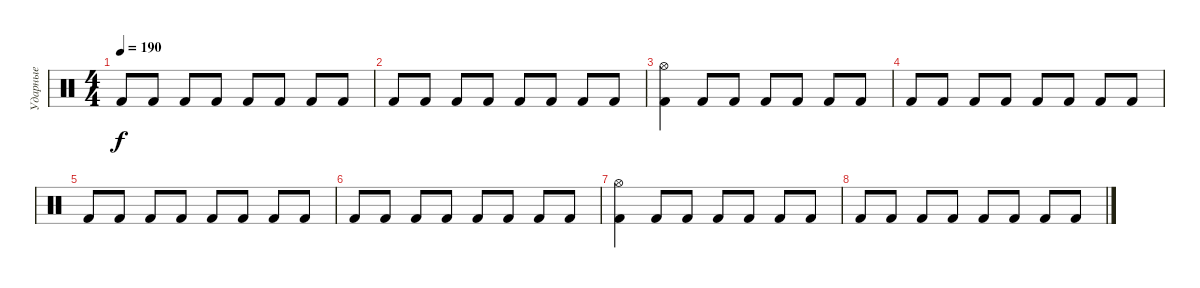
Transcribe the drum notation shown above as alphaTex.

\track ("Ударные" "Ударные") {instrument percussion}
\staff {score}
\articulation defaults
\ts (4 4)
\tempo 190
\clef neutral
\ks c "Kick (hit) 2".8{dy f} "Kick (hit) 2".8 "Kick (hit) 2".8 "Kick (hit) 2".8 "Kick (hit) 2".8 "Kick (hit) 2".8 "Kick (hit) 2".8 "Kick (hit) 2".8
|
"Kick (hit) 2".8 "Kick (hit) 2".8 "Kick (hit) 2".8 "Kick (hit) 2".8 "Kick (hit) 2".8 "Kick (hit) 2".8 "Kick (hit) 2".8 "Kick (hit) 2".8 |
("Kick (hit) 2" "Hi-Hat (open)").4 "Kick (hit) 2".8 "Kick (hit) 2".8 "Kick (hit) 2".8 "Kick (hit) 2".8 "Kick (hit) 2".8 "Kick (hit) 2".8 |
"Kick (hit) 2".8 "Kick (hit) 2".8 "Kick (hit) 2".8 "Kick (hit) 2".8 "Kick (hit) 2".8 "Kick (hit) 2".8 "Kick (hit) 2".8 "Kick (hit) 2".8 |
"Kick (hit) 2".8 "Kick (hit) 2".8 "Kick (hit) 2".8 "Kick (hit) 2".8 "Kick (hit) 2".8 "Kick (hit) 2".8 "Kick (hit) 2".8 "Kick (hit) 2".8 |
"Kick (hit) 2".8 "Kick (hit) 2".8 "Kick (hit) 2".8 "Kick (hit) 2".8 "Kick (hit) 2".8 "Kick (hit) 2".8 "Kick (hit) 2".8 "Kick (hit) 2".8 |
("Kick (hit) 2" "Hi-Hat (open)").4 "Kick (hit) 2".8 "Kick (hit) 2".8 "Kick (hit) 2".8 "Kick (hit) 2".8 "Kick (hit) 2".8 "Kick (hit) 2".8 |
"Kick (hit) 2".8 "Kick (hit) 2".8 "Kick (hit) 2".8 "Kick (hit) 2".8 "Kick (hit) 2".8 "Kick (hit) 2".8 "Kick (hit) 2".8 "Kick (hit) 2".8
